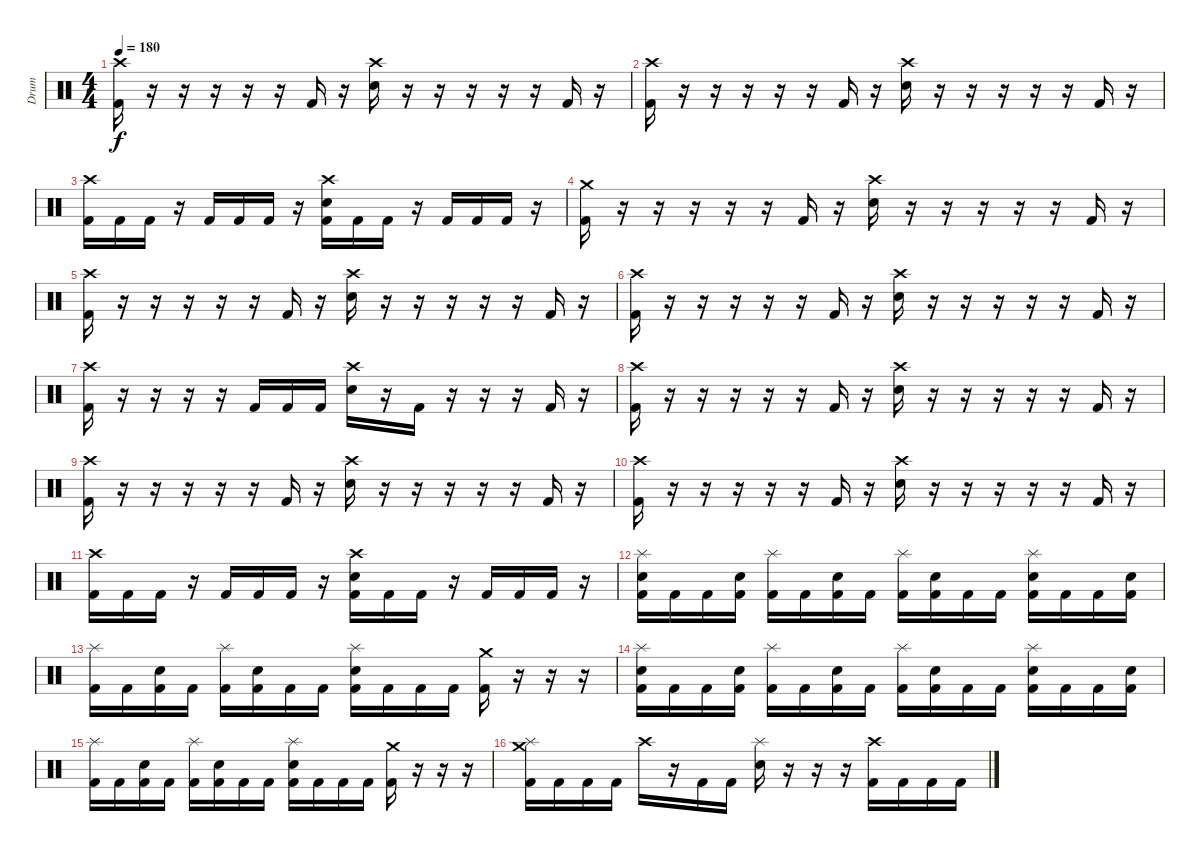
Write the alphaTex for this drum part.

\track ("Drum" "Drum") {instrument percussion}
\staff {score}
\articulation defaults
\ts (4 4)
\tempo 180
\clef neutral
\ks c
("Crash high (hit)" "Kick (hit) 2").16{dy f} r.16 r.16 r.16 r.16 r.16 "Kick (hit) 2".16 r.16 ("Crash high (hit)" "Electric Snare (hit)").16 r.16 r.16 r.16 r.16 r.16 "Kick (hit) 2".16 r.16 |
("Crash high (hit)" "Kick (hit) 2").16 r.16 r.16 r.16 r.16 r.16 "Kick (hit) 2".16 r.16 ("Crash high (hit)" "Electric Snare (hit)").16 r.16 r.16 r.16 r.16 r.16 "Kick (hit) 2".16 r.16 |
("Crash high (hit)" "Kick (hit) 2").16 "Kick (hit) 2".16 "Kick (hit) 2".16 r.16 "Kick (hit) 2".16 "Kick (hit) 2".16 "Kick (hit) 2".16 r.16 ("Crash high (hit)" "Electric Snare (hit)" "Kick (hit) 2").16 "Kick (hit) 2".16 "Kick (hit) 2".16 r.16 "Kick (hit) 2".16 "Kick (hit) 2".16 "Kick (hit) 2".16 r.16 |
("Crash medium (hit)" "Kick (hit) 2").16 r.16 r.16 r.16 r.16 r.16 "Kick (hit) 2".16 r.16 ("Crash high (hit)" "Electric Snare (hit)").16 r.16 r.16 r.16 r.16 r.16 "Kick (hit) 2".16 r.16 |
("Crash high (hit)" "Kick (hit) 2").16 r.16 r.16 r.16 r.16 r.16 "Kick (hit) 2".16 r.16 ("Crash high (hit)" "Electric Snare (hit)").16 r.16 r.16 r.16 r.16 r.16 "Kick (hit) 2".16 r.16 |
("Crash high (hit)" "Kick (hit) 2").16 r.16 r.16 r.16 r.16 r.16 "Kick (hit) 2".16 r.16 ("Crash high (hit)" "Electric Snare (hit)").16 r.16 r.16 r.16 r.16 r.16 "Kick (hit) 2".16 r.16 |
("Crash high (hit)" "Kick (hit) 2").16 r.16 r.16 r.16 r.16 "Kick (hit) 2".16 "Kick (hit) 2".16 "Kick (hit) 2".16 ("Crash high (hit)" "Electric Snare (hit)").16 r.16 "Kick (hit) 2".16 r.16 r.16 r.16 "Kick (hit) 2".16 r.16 |
("Crash high (hit)" "Kick (hit) 2").16 r.16 r.16 r.16 r.16 r.16 "Kick (hit) 2".16 r.16 ("Crash high (hit)" "Electric Snare (hit)").16 r.16 r.16 r.16 r.16 r.16 "Kick (hit) 2".16 r.16 |
("Crash high (hit)" "Kick (hit) 2").16 r.16 r.16 r.16 r.16 r.16 "Kick (hit) 2".16 r.16 ("Crash high (hit)" "Electric Snare (hit)").16 r.16 r.16 r.16 r.16 r.16 "Kick (hit) 2".16 r.16 |
("Crash high (hit)" "Kick (hit) 2").16 r.16 r.16 r.16 r.16 r.16 "Kick (hit) 2".16 r.16 ("Crash high (hit)" "Electric Snare (hit)").16 r.16 r.16 r.16 r.16 r.16 "Kick (hit) 2".16 r.16 |
("Crash high (hit)" "Kick (hit) 2").16 "Kick (hit) 2".16 "Kick (hit) 2".16 r.16 "Kick (hit) 2".16 "Kick (hit) 2".16 "Kick (hit) 2".16 r.16 ("Crash high (hit)" "Electric Snare (hit)" "Kick (hit) 2").16 "Kick (hit) 2".16 "Kick (hit) 2".16 r.16 "Kick (hit) 2".16 "Kick (hit) 2".16 "Kick (hit) 2".16 r.16 |
("Splash (hit)" "Electric Snare (hit)" "Kick (hit) 2").16 "Kick (hit) 2".16 "Kick (hit) 2".16 ("Electric Snare (hit)" "Kick (hit) 2").16 ("Splash (hit)" "Kick (hit) 2").16 "Kick (hit) 2".16 ("Electric Snare (hit)" "Kick (hit) 2").16 "Kick (hit) 2".16 ("Splash (hit)" "Kick (hit) 2").16 ("Electric Snare (hit)" "Kick (hit) 2").16 "Kick (hit) 2".16 "Kick (hit) 2".16 ("Splash (hit)" "Electric Snare (hit)" "Kick (hit) 2").16 "Kick (hit) 2".16 "Kick (hit) 2".16 ("Electric Snare (hit)" "Kick (hit) 2").16 |
("Splash (hit)" "Kick (hit) 2").16 "Kick (hit) 2".16 ("Electric Snare (hit)" "Kick (hit) 2").16 "Kick (hit) 2".16 ("Splash (hit)" "Kick (hit) 2").16 ("Electric Snare (hit)" "Kick (hit) 2").16 "Kick (hit) 2".16 "Kick (hit) 2".16 ("Splash (hit)" "Electric Snare (hit)" "Kick (hit) 2").16 "Kick (hit) 2".16 "Kick (hit) 2".16 "Kick (hit) 2".16 ("Crash medium (hit)" "Kick (hit) 2").16 r.16 r.16 r.16 |
("Splash (hit)" "Electric Snare (hit)" "Kick (hit) 2").16 "Kick (hit) 2".16 "Kick (hit) 2".16 ("Electric Snare (hit)" "Kick (hit) 2").16 ("Splash (hit)" "Kick (hit) 2").16 "Kick (hit) 2".16 ("Electric Snare (hit)" "Kick (hit) 2").16 "Kick (hit) 2".16 ("Splash (hit)" "Kick (hit) 2").16 ("Electric Snare (hit)" "Kick (hit) 2").16 "Kick (hit) 2".16 "Kick (hit) 2".16 ("Splash (hit)" "Electric Snare (hit)" "Kick (hit) 2").16 "Kick (hit) 2".16 "Kick (hit) 2".16 ("Electric Snare (hit)" "Kick (hit) 2").16 |
("Splash (hit)" "Kick (hit) 2").16 "Kick (hit) 2".16 ("Electric Snare (hit)" "Kick (hit) 2").16 "Kick (hit) 2".16 ("Splash (hit)" "Kick (hit) 2").16 ("Electric Snare (hit)" "Kick (hit) 2").16 "Kick (hit) 2".16 "Kick (hit) 2".16 ("Splash (hit)" "Electric Snare (hit)" "Kick (hit) 2").16 "Kick (hit) 2".16 "Kick (hit) 2".16 "Kick (hit) 2".16 ("Crash medium (hit)" "Kick (hit) 2").16 r.16 r.16 r.16 |
("Splash (hit)" "Crash medium (hit)" "Kick (hit) 2").16 "Kick (hit) 2".16 "Kick (hit) 2".16 "Kick (hit) 2".16 "Crash high (hit)".16 r.16 "Kick (hit) 2".16 "Kick (hit) 2".16 ("Splash (hit)" "Electric Snare (hit)").16 r.16 r.16 r.16 ("Crash high (hit)" "Kick (hit) 2").16 "Kick (hit) 2".16 "Kick (hit) 2".16 "Kick (hit) 2".16
